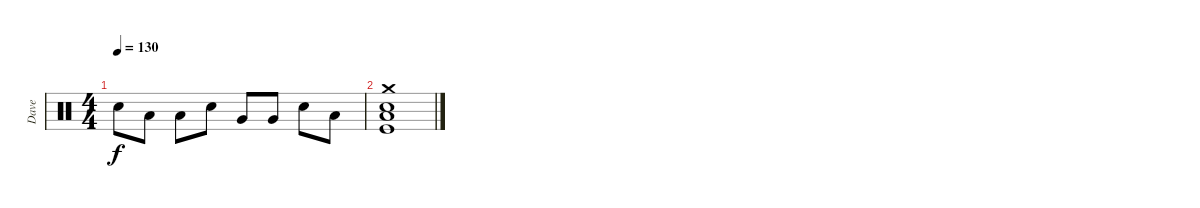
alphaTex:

\track ("Dave" "Dave") {instrument percussion}
\staff {score}
\articulation defaults
\ts (4 4)
\tempo 130
\clef neutral
\ks c "Electric Snare (hit)".8{dy f} "Low Tom (hit)".8 "Low Tom (hit)".8 "Electric Snare (hit)".8 "Very Low Tom (hit)".8 "Very Low Tom (hit)".8 "Electric Snare (hit)".8 "Low Floor Tom (hit)".8
|
("Crash medium (hit)" "Low Floor Tom (hit)" "Electric Snare (hit)" "Kick (hit)").1
